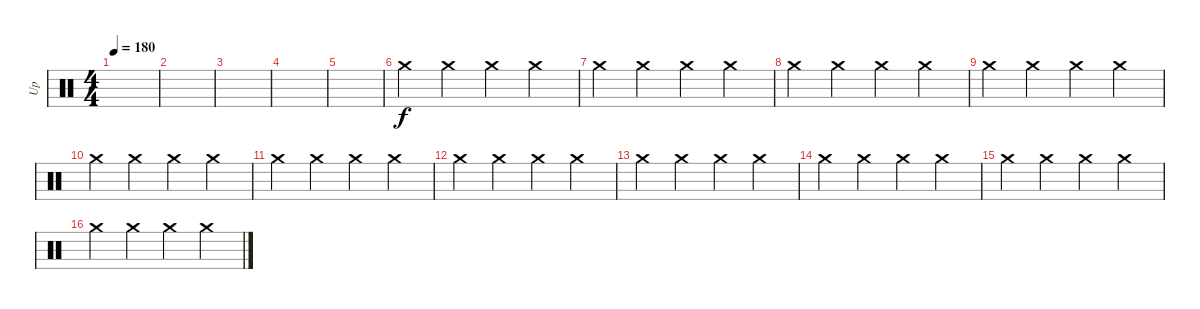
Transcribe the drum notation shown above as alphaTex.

\track ("Up" "Up") {instrument percussion}
\staff {score}
\articulation defaults
\ts (4 4)
\tempo 180
\clef neutral
\ks c
|
|
|
|
|
"Crash medium (hit)".4 "Crash medium (hit)".4 "Crash medium (hit)".4 "Crash medium (hit)".4 |
"Crash medium (hit)".4 "Crash medium (hit)".4 "Crash medium (hit)".4 "Crash medium (hit)".4 |
"Crash medium (hit)".4 "Crash medium (hit)".4 "Crash medium (hit)".4 "Crash medium (hit)".4 |
"Crash medium (hit)".4 "Crash medium (hit)".4 "Crash medium (hit)".4 "Crash medium (hit)".4 |
"Crash medium (hit)".4 "Crash medium (hit)".4 "Crash medium (hit)".4 "Crash medium (hit)".4 |
"Crash medium (hit)".4 "Crash medium (hit)".4 "Crash medium (hit)".4 "Crash medium (hit)".4 |
"Crash medium (hit)".4 "Crash medium (hit)".4 "Crash medium (hit)".4 "Crash medium (hit)".4 |
"Crash medium (hit)".4 "Crash medium (hit)".4 "Crash medium (hit)".4 "Crash medium (hit)".4 |
"Crash medium (hit)".4 "Crash medium (hit)".4 "Crash medium (hit)".4 "Crash medium (hit)".4 |
"Crash medium (hit)".4 "Crash medium (hit)".4 "Crash medium (hit)".4 "Crash medium (hit)".4 |
"Crash medium (hit)".4 "Crash medium (hit)".4 "Crash medium (hit)".4 "Crash medium (hit)".4
